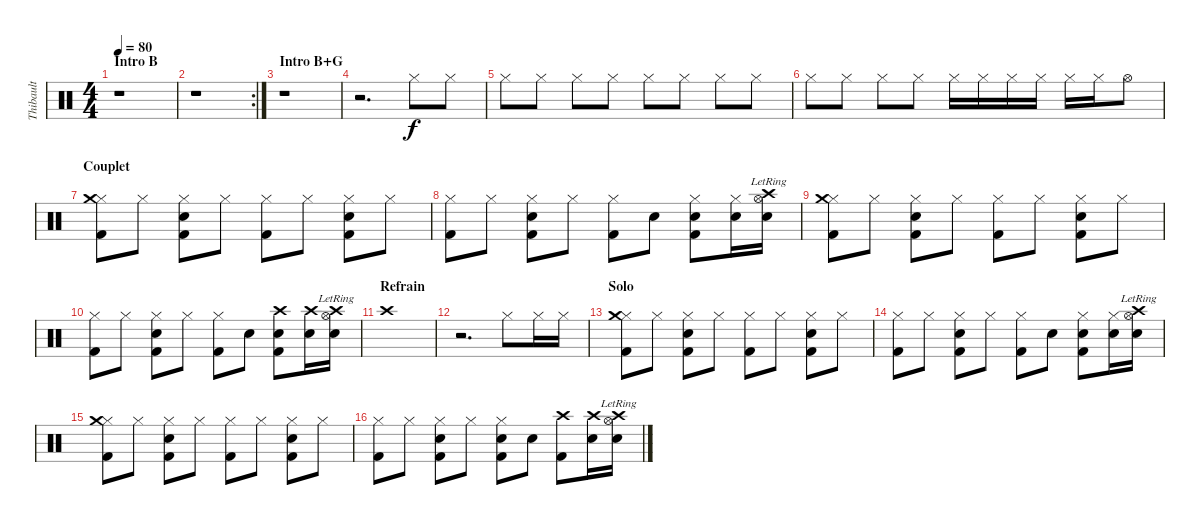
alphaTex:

\track ("Thibault" "Thibault") {instrument percussion}
\staff {score}
\articulation defaults
\ts (4 4)
\section ("" "Intro B")
\tempo 80
\clef neutral
\ks c
r.1{dy f} |
\rc 2
r.1 |
\section ("" "Intro B+G")
r.1 |
r.2{d} "Hi-Hat (closed)".8{volume 16} "Hi-Hat (closed)".8 |
"Hi-Hat (closed)".8 "Hi-Hat (closed)".8 "Hi-Hat (closed)".8 "Hi-Hat (closed)".8 "Hi-Hat (closed)".8 "Hi-Hat (closed)".8 "Hi-Hat (closed)".8 "Hi-Hat (closed)".8 |
"Hi-Hat (closed)".8 "Hi-Hat (closed)".8 "Hi-Hat (closed)".8 "Hi-Hat (closed)".8 "Hi-Hat (closed)".16 "Hi-Hat (closed)".16 "Hi-Hat (closed)".16 "Hi-Hat (closed)".16 "Hi-Hat (closed)".16 "Hi-Hat (closed)".16 "Hi-Hat (open)".8 |
\section ("" "Couplet")
("Hi-Hat (closed)" "Crash medium (hit)" "Kick (hit) 2").8{volume 10} "Hi-Hat (closed)".8 ("Hi-Hat (closed)" "Snare (hit) 2" "Kick (hit) 2").8 "Hi-Hat (closed)".8 ("Hi-Hat (closed)" "Kick (hit) 2").8 "Hi-Hat (closed)".8 ("Hi-Hat (closed)" "Snare (hit) 2" "Kick (hit) 2").8 "Hi-Hat (closed)".8 |
("Hi-Hat (closed)" "Kick (hit) 2").8 "Hi-Hat (closed)".8 ("Hi-Hat (closed)" "Snare (hit) 2" "Kick (hit) 2").8 "Hi-Hat (closed)".8 ("Hi-Hat (closed)" "Kick (hit) 2").8 "Snare (hit) 2".8 ("Hi-Hat (closed)" "Snare (hit) 2" "Kick (hit) 2").8 ("Hi-Hat (closed)" "Snare (hit) 2").16 ("Hi-Hat (open)" "Crash high (hit)"{lr} "Snare (hit) 2").16 |
("Hi-Hat (closed)" "Crash medium (hit)" "Kick (hit) 2").8 "Hi-Hat (closed)".8 ("Hi-Hat (closed)" "Snare (hit) 2" "Kick (hit) 2").8 "Hi-Hat (closed)".8 ("Hi-Hat (closed)" "Kick (hit) 2").8 "Hi-Hat (closed)".8 ("Hi-Hat (closed)" "Snare (hit) 2" "Kick (hit) 2").8 "Hi-Hat (closed)".8 |
("Hi-Hat (closed)" "Kick (hit) 2").8 "Hi-Hat (closed)".8 ("Hi-Hat (closed)" "Snare (hit) 2" "Kick (hit) 2").8 "Hi-Hat (closed)".8 ("Hi-Hat (closed)" "Kick (hit) 2").8 "Snare (hit) 2".8 ("Crash high (hit)" "Snare (hit) 2" "Kick (hit) 2").8 ("Crash high (hit)" "Snare (hit) 2").16 ("Hi-Hat (open)" "Crash high (hit)"{lr} "Snare (hit) 2").16 |
\section ("" "Refrain")
"Crash high (hit)".1 |
r.2{d} "Hi-Hat (closed)".8 "Hi-Hat (closed)".16 "Hi-Hat (closed)".16 |
\section ("" "Solo")
("Hi-Hat (closed)" "Crash medium (hit)" "Kick (hit) 2").8{volume 9} "Hi-Hat (closed)".8 ("Hi-Hat (closed)" "Snare (hit) 2" "Kick (hit) 2").8 "Hi-Hat (closed)".8 ("Hi-Hat (closed)" "Kick (hit) 2").8 "Hi-Hat (closed)".8 ("Hi-Hat (closed)" "Snare (hit) 2" "Kick (hit) 2").8 "Hi-Hat (closed)".8 |
("Hi-Hat (closed)" "Kick (hit) 2").8 "Hi-Hat (closed)".8 ("Hi-Hat (closed)" "Snare (hit) 2" "Kick (hit) 2").8 "Hi-Hat (closed)".8 ("Hi-Hat (closed)" "Kick (hit) 2").8 "Snare (hit) 2".8 ("Hi-Hat (closed)" "Snare (hit) 2" "Kick (hit) 2").8 ("Hi-Hat (closed)" "Snare (hit) 2").16 ("Hi-Hat (open)" "Crash high (hit)"{lr} "Snare (hit) 2").16 |
("Hi-Hat (closed)" "Crash medium (hit)" "Kick (hit) 2").8 "Hi-Hat (closed)".8 ("Hi-Hat (closed)" "Snare (hit) 2" "Kick (hit) 2").8 "Hi-Hat (closed)".8 ("Hi-Hat (closed)" "Kick (hit) 2").8 "Hi-Hat (closed)".8 ("Hi-Hat (closed)" "Snare (hit) 2" "Kick (hit) 2").8 "Hi-Hat (closed)".8 |
("Hi-Hat (closed)" "Kick (hit) 2").8 "Hi-Hat (closed)".8 ("Hi-Hat (closed)" "Snare (hit) 2" "Kick (hit) 2").8 "Hi-Hat (closed)".8 ("Hi-Hat (closed)" "Snare (hit) 2" "Kick (hit) 2").8 "Snare (hit) 2".8 ("Crash high (hit)" "Kick (hit) 2").8 ("Crash high (hit)" "Snare (hit) 2").16 ("Hi-Hat (open)" "Crash high (hit)"{lr} "Snare (hit) 2").16
